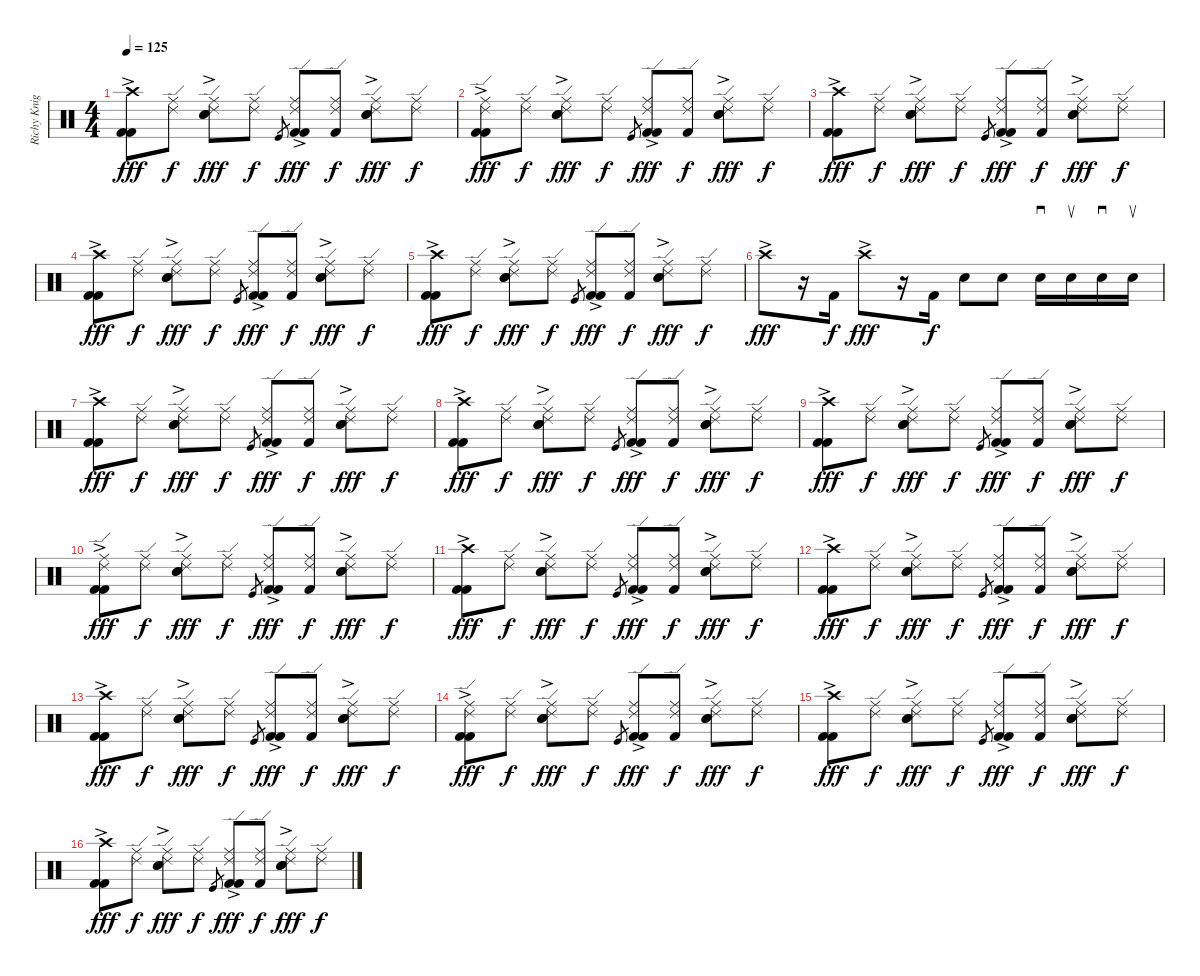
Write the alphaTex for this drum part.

\track ("Richy Knight" "Richy Knig") {instrument percussion}
\staff {score}
\articulation defaults
\ts (4 4)
\tempo 125
\clef neutral
\ks c
("Crash high (hit)"{ac} "Kick (hit) 2"{ac} "Kick (hit) 2"{ac}).8{dy fff} ("Ride (middle)" "Ride (edge) 2").8{dy f} ("Ride (middle)" "Ride (edge) 2" "Electric Snare (hit)"{ac} "Electric Snare (hit)"{ac}).8{dy fff} ("Ride (middle)" "Ride (edge) 2").8{dy f} "Kick (hit)".8{gr} ("Ride (middle)" "Ride (edge) 2" "Kick (hit) 2"{ac} "Kick (hit) 2"{ac}).8{dy fff} ("Ride (middle)" "Ride (edge) 2" "Kick (hit) 2").8{dy f} ("Ride (middle)" "Ride (edge) 2" "Electric Snare (hit)"{ac} "Electric Snare (hit)"{ac}).8{dy fff} ("Ride (middle)" "Ride (edge) 2").8{dy f} |
("Ride (middle)"{ac} "Ride (edge) 2"{ac} "Kick (hit) 2"{ac} "Kick (hit) 2"{ac}).8{dy fff} ("Ride (middle)" "Ride (edge) 2").8{dy f} ("Ride (middle)" "Ride (edge) 2" "Electric Snare (hit)"{ac} "Electric Snare (hit)"{ac}).8{dy fff} ("Ride (middle)" "Ride (edge) 2").8{dy f} "Kick (hit)".8{gr} ("Ride (middle)" "Ride (edge) 2" "Kick (hit) 2"{ac} "Kick (hit) 2"{ac}).8{dy fff} ("Ride (middle)" "Ride (edge) 2" "Kick (hit) 2").8{dy f} ("Ride (middle)" "Ride (edge) 2" "Electric Snare (hit)"{ac} "Electric Snare (hit)"{ac}).8{dy fff} ("Ride (middle)" "Ride (edge) 2").8{dy f} |
("Crash high (hit)"{ac} "Kick (hit) 2"{ac} "Kick (hit) 2"{ac}).8{dy fff} ("Ride (middle)" "Ride (edge) 2").8{dy f} ("Ride (middle)" "Ride (edge) 2" "Electric Snare (hit)"{ac} "Electric Snare (hit)"{ac}).8{dy fff} ("Ride (middle)" "Ride (edge) 2").8{dy f} "Kick (hit)".8{gr} ("Ride (middle)" "Ride (edge) 2" "Kick (hit) 2"{ac} "Kick (hit) 2"{ac}).8{dy fff} ("Ride (middle)" "Ride (edge) 2" "Kick (hit) 2").8{dy f} ("Ride (middle)" "Ride (edge) 2" "Electric Snare (hit)"{ac} "Electric Snare (hit)"{ac}).8{dy fff} ("Ride (middle)" "Ride (edge) 2").8{dy f} |
("Crash high (hit)"{ac} "Kick (hit) 2"{ac} "Kick (hit) 2"{ac}).8{dy fff} ("Ride (middle)" "Ride (edge) 2").8{dy f} ("Ride (middle)" "Ride (edge) 2" "Electric Snare (hit)"{ac} "Electric Snare (hit)"{ac}).8{dy fff} ("Ride (middle)" "Ride (edge) 2").8{dy f} "Kick (hit)".8{gr} ("Ride (middle)" "Ride (edge) 2" "Kick (hit) 2"{ac} "Kick (hit) 2"{ac}).8{dy fff} ("Ride (middle)" "Ride (edge) 2" "Kick (hit) 2").8{dy f} ("Ride (middle)" "Ride (edge) 2" "Electric Snare (hit)"{ac} "Electric Snare (hit)"{ac}).8{dy fff} ("Ride (middle)" "Ride (edge) 2").8{dy f} |
("Crash high (hit)"{ac} "Kick (hit) 2"{ac} "Kick (hit) 2"{ac}).8{dy fff} ("Ride (middle)" "Ride (edge) 2").8{dy f} ("Ride (middle)" "Ride (edge) 2" "Electric Snare (hit)"{ac} "Electric Snare (hit)"{ac}).8{dy fff} ("Ride (middle)" "Ride (edge) 2").8{dy f} "Kick (hit)".8{gr} ("Ride (middle)" "Ride (edge) 2" "Kick (hit) 2"{ac} "Kick (hit) 2"{ac}).8{dy fff} ("Ride (middle)" "Ride (edge) 2" "Kick (hit) 2").8{dy f} ("Ride (middle)" "Ride (edge) 2" "Electric Snare (hit)"{ac} "Electric Snare (hit)"{ac}).8{dy fff} ("Ride (middle)" "Ride (edge) 2").8{dy f} |
"Crash high (hit)"{ac}.8{dy fff} r.16 "Kick (hit) 2".16{dy f} "Crash high (hit)"{ac}.8{dy fff} r.16 "Kick (hit) 2".16{dy f} "Electric Snare (hit)".8 "Electric Snare (hit)".8 "Electric Snare (hit)".16{sd} "Electric Snare (hit)".16{su} "Electric Snare (hit)".16{sd} "Electric Snare (hit)".16{su} |
("Crash high (hit)"{ac} "Kick (hit) 2"{ac} "Kick (hit) 2"{ac}).8{dy fff} ("Ride (middle)" "Ride (edge) 2").8{dy f} ("Ride (middle)" "Ride (edge) 2" "Electric Snare (hit)"{ac} "Electric Snare (hit)"{ac}).8{dy fff} ("Ride (middle)" "Ride (edge) 2").8{dy f} "Kick (hit)".8{gr} ("Ride (middle)" "Ride (edge) 2" "Kick (hit) 2"{ac} "Kick (hit) 2"{ac}).8{dy fff} ("Ride (middle)" "Ride (edge) 2" "Kick (hit) 2").8{dy f} ("Ride (middle)" "Ride (edge) 2" "Electric Snare (hit)"{ac} "Electric Snare (hit)"{ac}).8{dy fff} ("Ride (middle)" "Ride (edge) 2").8{dy f} |
("Crash high (hit)"{ac} "Kick (hit) 2"{ac} "Kick (hit) 2"{ac}).8{dy fff} ("Ride (middle)" "Ride (edge) 2").8{dy f} ("Ride (middle)" "Ride (edge) 2" "Electric Snare (hit)"{ac} "Electric Snare (hit)"{ac}).8{dy fff} ("Ride (middle)" "Ride (edge) 2").8{dy f} "Kick (hit)".8{gr} ("Ride (middle)" "Ride (edge) 2" "Kick (hit) 2"{ac} "Kick (hit) 2"{ac}).8{dy fff} ("Ride (middle)" "Ride (edge) 2" "Kick (hit) 2").8{dy f} ("Ride (middle)" "Ride (edge) 2" "Electric Snare (hit)"{ac} "Electric Snare (hit)"{ac}).8{dy fff} ("Ride (middle)" "Ride (edge) 2").8{dy f} |
("Crash high (hit)"{ac} "Kick (hit) 2"{ac} "Kick (hit) 2"{ac}).8{dy fff} ("Ride (middle)" "Ride (edge) 2").8{dy f} ("Ride (middle)" "Ride (edge) 2" "Electric Snare (hit)"{ac} "Electric Snare (hit)"{ac}).8{dy fff} ("Ride (middle)" "Ride (edge) 2").8{dy f} "Kick (hit)".8{gr} ("Ride (middle)" "Ride (edge) 2" "Kick (hit) 2"{ac} "Kick (hit) 2"{ac}).8{dy fff} ("Ride (middle)" "Ride (edge) 2" "Kick (hit) 2").8{dy f} ("Ride (middle)" "Ride (edge) 2" "Electric Snare (hit)"{ac} "Electric Snare (hit)"{ac}).8{dy fff} ("Ride (middle)" "Ride (edge) 2").8{dy f} |
("Ride (middle)"{ac} "Ride (edge) 2"{ac} "Kick (hit) 2"{ac} "Kick (hit) 2"{ac}).8{dy fff} ("Ride (middle)" "Ride (edge) 2").8{dy f} ("Ride (middle)" "Ride (edge) 2" "Electric Snare (hit)"{ac} "Electric Snare (hit)"{ac}).8{dy fff} ("Ride (middle)" "Ride (edge) 2").8{dy f} "Kick (hit)".8{gr} ("Ride (middle)" "Ride (edge) 2" "Kick (hit) 2"{ac} "Kick (hit) 2"{ac}).8{dy fff} ("Ride (middle)" "Ride (edge) 2" "Kick (hit) 2").8{dy f} ("Ride (middle)" "Ride (edge) 2" "Electric Snare (hit)"{ac} "Electric Snare (hit)"{ac}).8{dy fff} ("Ride (middle)" "Ride (edge) 2").8{dy f} |
("Crash high (hit)"{ac} "Kick (hit) 2"{ac} "Kick (hit) 2"{ac}).8{dy fff} ("Ride (middle)" "Ride (edge) 2").8{dy f} ("Ride (middle)" "Ride (edge) 2" "Electric Snare (hit)"{ac} "Electric Snare (hit)"{ac}).8{dy fff} ("Ride (middle)" "Ride (edge) 2").8{dy f} "Kick (hit)".8{gr} ("Ride (middle)" "Ride (edge) 2" "Kick (hit) 2"{ac} "Kick (hit) 2"{ac}).8{dy fff} ("Ride (middle)" "Ride (edge) 2" "Kick (hit) 2").8{dy f} ("Ride (middle)" "Ride (edge) 2" "Electric Snare (hit)"{ac} "Electric Snare (hit)"{ac}).8{dy fff} ("Ride (middle)" "Ride (edge) 2").8{dy f} |
("Crash high (hit)"{ac} "Kick (hit) 2"{ac} "Kick (hit) 2"{ac}).8{dy fff} ("Ride (middle)" "Ride (edge) 2").8{dy f} ("Ride (middle)" "Ride (edge) 2" "Electric Snare (hit)"{ac} "Electric Snare (hit)"{ac}).8{dy fff} ("Ride (middle)" "Ride (edge) 2").8{dy f} "Kick (hit)".8{gr} ("Ride (middle)" "Ride (edge) 2" "Kick (hit) 2"{ac} "Kick (hit) 2"{ac}).8{dy fff} ("Ride (middle)" "Ride (edge) 2" "Kick (hit) 2").8{dy f} ("Ride (middle)" "Ride (edge) 2" "Electric Snare (hit)"{ac} "Electric Snare (hit)"{ac}).8{dy fff} ("Ride (middle)" "Ride (edge) 2").8{dy f} |
("Crash high (hit)"{ac} "Kick (hit) 2"{ac} "Kick (hit) 2"{ac}).8{dy fff} ("Ride (middle)" "Ride (edge) 2").8{dy f} ("Ride (middle)" "Ride (edge) 2" "Electric Snare (hit)"{ac} "Electric Snare (hit)"{ac}).8{dy fff} ("Ride (middle)" "Ride (edge) 2").8{dy f} "Kick (hit)".8{gr} ("Ride (middle)" "Ride (edge) 2" "Kick (hit) 2"{ac} "Kick (hit) 2"{ac}).8{dy fff} ("Ride (middle)" "Ride (edge) 2" "Kick (hit) 2").8{dy f} ("Ride (middle)" "Ride (edge) 2" "Electric Snare (hit)"{ac} "Electric Snare (hit)"{ac}).8{dy fff} ("Ride (middle)" "Ride (edge) 2").8{dy f} |
("Ride (middle)"{ac} "Ride (edge) 2"{ac} "Kick (hit) 2"{ac} "Kick (hit) 2"{ac}).8{dy fff} ("Ride (middle)" "Ride (edge) 2").8{dy f} ("Ride (middle)" "Ride (edge) 2" "Electric Snare (hit)"{ac} "Electric Snare (hit)"{ac}).8{dy fff} ("Ride (middle)" "Ride (edge) 2").8{dy f} "Kick (hit)".8{gr} ("Ride (middle)" "Ride (edge) 2" "Kick (hit) 2"{ac} "Kick (hit) 2"{ac}).8{dy fff} ("Ride (middle)" "Ride (edge) 2" "Kick (hit) 2").8{dy f} ("Ride (middle)" "Ride (edge) 2" "Electric Snare (hit)"{ac} "Electric Snare (hit)"{ac}).8{dy fff} ("Ride (middle)" "Ride (edge) 2").8{dy f} |
("Crash high (hit)"{ac} "Kick (hit) 2"{ac} "Kick (hit) 2"{ac}).8{dy fff} ("Ride (middle)" "Ride (edge) 2").8{dy f} ("Ride (middle)" "Ride (edge) 2" "Electric Snare (hit)"{ac} "Electric Snare (hit)"{ac}).8{dy fff} ("Ride (middle)" "Ride (edge) 2").8{dy f} "Kick (hit)".8{gr} ("Ride (middle)" "Ride (edge) 2" "Kick (hit) 2"{ac} "Kick (hit) 2"{ac}).8{dy fff} ("Ride (middle)" "Ride (edge) 2" "Kick (hit) 2").8{dy f} ("Ride (middle)" "Ride (edge) 2" "Electric Snare (hit)"{ac} "Electric Snare (hit)"{ac}).8{dy fff} ("Ride (middle)" "Ride (edge) 2").8{dy f} |
("Crash high (hit)"{ac} "Kick (hit) 2"{ac} "Kick (hit) 2"{ac}).8{dy fff} ("Ride (middle)" "Ride (edge) 2").8{dy f} ("Ride (middle)" "Ride (edge) 2" "Electric Snare (hit)"{ac} "Electric Snare (hit)"{ac}).8{dy fff} ("Ride (middle)" "Ride (edge) 2").8{dy f} "Kick (hit)".8{gr} ("Ride (middle)" "Ride (edge) 2" "Kick (hit) 2"{ac} "Kick (hit) 2"{ac}).8{dy fff} ("Ride (middle)" "Ride (edge) 2" "Kick (hit) 2").8{dy f} ("Ride (middle)" "Ride (edge) 2" "Electric Snare (hit)"{ac} "Electric Snare (hit)"{ac}).8{dy fff} ("Ride (middle)" "Ride (edge) 2").8{dy f}
